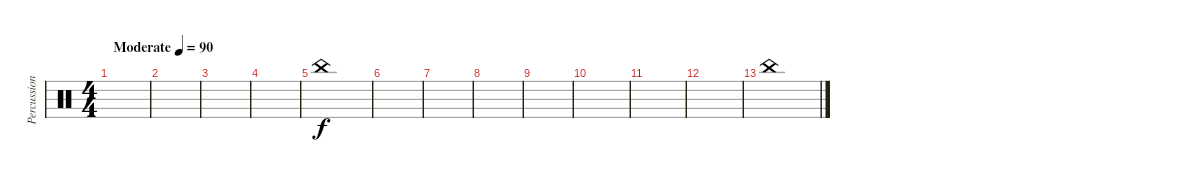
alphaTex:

\track ("Percussion" "Percussion") {instrument percussion}
\staff
\articulation defaults
\ts (4 4)
\tempo (90 "Moderate")
\clef neutral
\ks c
|
|
|
|
"China (hit)".1{volume 5 balance 5} |
|
|
|
|
|
|
|
"China (hit)".1{volume 3 balance 5}
